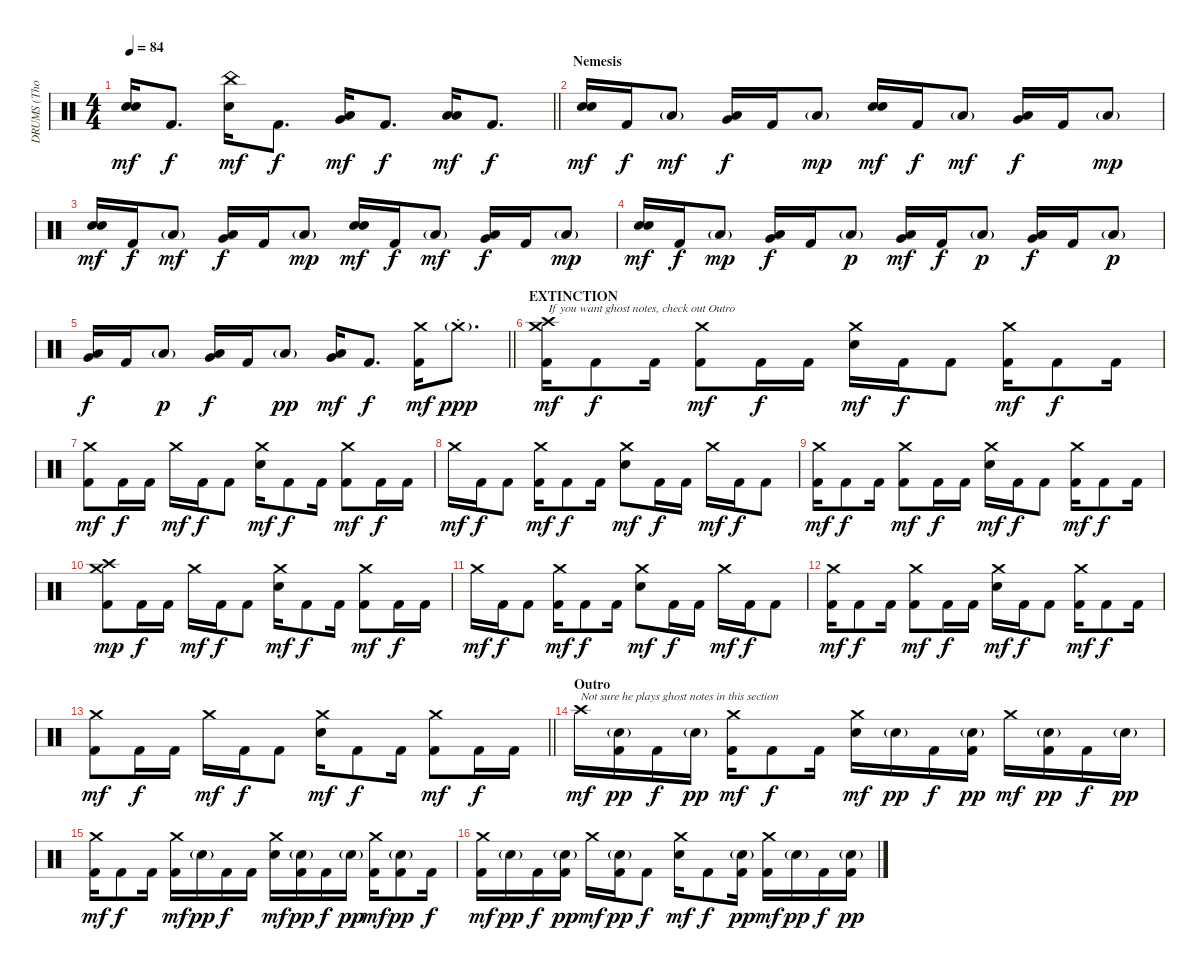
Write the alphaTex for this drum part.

\track ("DRUMS (Thomas Haake)" "DRUMS (Tho") {instrument percussion}
\staff {score}
\articulation defaults
\ts (4 4)
\tempo 84
\clef neutral
\barLineRight lightlight
\ks c
("Electric Snare (hit)" "Electric Snare (hit)").16{bd 240 dy mf} "Kick (hit) 2".8{d dy f} ("China (hit)" "Electric Snare (hit)").16{dy mf} "Kick (hit) 2".8{d dy f} ("Very Low Tom (hit)" "Low Floor Tom (hit)").16{dy mf} "Kick (hit) 2".8{d dy f} ("Low Floor Tom (hit)" "Low Floor Tom (hit)").16{dy mf} "Kick (hit) 2".8{d dy f} |
\section ("" "Nemesis")
("Electric Snare (hit)" "Electric Snare (hit)").16{bd 240 dy mf} "Kick (hit) 2".16{dy f} "Low Floor Tom (hit)"{g}.8{dy mf} ("Very Low Tom (hit)" "Low Floor Tom (hit)").16{dy f} "Kick (hit) 2".16 "Low Floor Tom (hit)"{g}.8{dy mp} ("Electric Snare (hit)" "Electric Snare (hit)").16{bd 30 dy mf} "Kick (hit) 2".16{dy f} "Low Floor Tom (hit)"{g}.8{dy mf} ("Very Low Tom (hit)" "Low Floor Tom (hit)").16{dy f} "Kick (hit) 2".16 "Low Floor Tom (hit)"{g}.8{dy mp} |
("Electric Snare (hit)" "Electric Snare (hit)").16{bd 30 dy mf} "Kick (hit) 2".16{dy f} "Low Floor Tom (hit)"{g}.8{dy mf} ("Very Low Tom (hit)" "Low Floor Tom (hit)").16{dy f} "Kick (hit) 2".16 "Low Floor Tom (hit)"{g}.8{dy mp} ("Electric Snare (hit)" "Electric Snare (hit)").16{bd 30 dy mf} "Kick (hit) 2".16{dy f} "Low Floor Tom (hit)"{g}.8{dy mf} ("Very Low Tom (hit)" "Low Floor Tom (hit)").16{dy f} "Kick (hit) 2".16 "Low Floor Tom (hit)"{g}.8{dy mp} |
("Electric Snare (hit)" "Electric Snare (hit)").16{bd 30 dy mf} "Kick (hit) 2".16{dy f} "Low Floor Tom (hit)"{g}.8{dy mp} ("Very Low Tom (hit)" "Low Floor Tom (hit)").16{dy f} "Kick (hit) 2".16 "Low Floor Tom (hit)"{g}.8{dy p} ("Very Low Tom (hit)" "Low Floor Tom (hit)").16{dy mf} "Kick (hit) 2".16{dy f} "Low Floor Tom (hit)"{g}.8{dy p} ("Very Low Tom (hit)" "Low Floor Tom (hit)").16{dy f} "Kick (hit) 2".16 "Low Floor Tom (hit)"{g}.8{dy p} |
\barLineRight lightlight
("Very Low Tom (hit)" "Low Floor Tom (hit)").16{dy f} "Kick (hit) 2".16 "Low Floor Tom (hit)"{g}.8{dy p} ("Very Low Tom (hit)" "Low Floor Tom (hit)").16{dy f} "Kick (hit) 2".16 "Low Floor Tom (hit)"{g}.8{dy pp} ("Very Low Tom (hit)" "Low Floor Tom (hit)").16{dy mf} "Kick (hit) 2".8{d dy f} ("Crash medium (hit)" "Kick (hit) 2").16{dy mf} "Crash medium (hit)"{g st}.8{d dy ppp} |
\section ("" "EXTINCTION")
("Crash medium (hit)" "Crash high (hit)" "Kick (hit) 2").16{txt "If you want ghost notes, check out Outro" dy mf} "Kick (hit) 2".8{dy f} "Kick (hit) 2".16 ("Crash medium (hit)" "Kick (hit) 2").8{dy mf} "Kick (hit) 2".16{dy f} "Kick (hit) 2".16 ("Crash medium (hit)" "Electric Snare (hit)").16{dy mf} "Kick (hit) 2".16{dy f} "Kick (hit) 2".8 ("Crash medium (hit)" "Kick (hit) 2").16{dy mf} "Kick (hit) 2".8{dy f} "Kick (hit) 2".16 |
("Crash medium (hit)" "Kick (hit) 2").8{dy mf} "Kick (hit) 2".16{dy f} "Kick (hit) 2".16 "Crash medium (hit)".16{dy mf} "Kick (hit) 2".16{dy f} "Kick (hit) 2".8 ("Crash medium (hit)" "Electric Snare (hit)").16{dy mf} "Kick (hit) 2".8{dy f} "Kick (hit) 2".16 ("Crash medium (hit)" "Kick (hit) 2").8{dy mf} "Kick (hit) 2".16{dy f} "Kick (hit) 2".16 |
"Crash medium (hit)".16{dy mf} "Kick (hit) 2".16{dy f} "Kick (hit) 2".8 ("Crash medium (hit)" "Kick (hit) 2").16{dy mf} "Kick (hit) 2".8{dy f} "Kick (hit) 2".16 ("Crash medium (hit)" "Electric Snare (hit)").8{dy mf} "Kick (hit) 2".16{dy f} "Kick (hit) 2".16 "Crash medium (hit)".16{dy mf} "Kick (hit) 2".16{dy f} "Kick (hit) 2".8 |
("Crash medium (hit)" "Kick (hit) 2").16{dy mf} "Kick (hit) 2".8{dy f} "Kick (hit) 2".16 ("Crash medium (hit)" "Kick (hit) 2").8{dy mf} "Kick (hit) 2".16{dy f} "Kick (hit) 2".16 ("Crash medium (hit)" "Electric Snare (hit)").16{dy mf} "Kick (hit) 2".16{dy f} "Kick (hit) 2".8 ("Crash medium (hit)" "Kick (hit) 2").16{dy mf} "Kick (hit) 2".8{dy f} "Kick (hit) 2".16 |
("Crash medium (hit)" "Crash high (hit)" "Kick (hit) 2").8{dy mp} "Kick (hit) 2".16{dy f} "Kick (hit) 2".16 "Crash medium (hit)".16{dy mf} "Kick (hit) 2".16{dy f} "Kick (hit) 2".8 ("Crash medium (hit)" "Electric Snare (hit)").16{dy mf} "Kick (hit) 2".8{dy f} "Kick (hit) 2".16 ("Crash medium (hit)" "Kick (hit) 2").8{dy mf} "Kick (hit) 2".16{dy f} "Kick (hit) 2".16 |
"Crash medium (hit)".16{dy mf} "Kick (hit) 2".16{dy f} "Kick (hit) 2".8 ("Crash medium (hit)" "Kick (hit) 2").16{dy mf} "Kick (hit) 2".8{dy f} "Kick (hit) 2".16 ("Crash medium (hit)" "Electric Snare (hit)").8{dy mf} "Kick (hit) 2".16{dy f} "Kick (hit) 2".16 "Crash medium (hit)".16{dy mf} "Kick (hit) 2".16{dy f} "Kick (hit) 2".8 |
("Crash medium (hit)" "Kick (hit) 2").16{dy mf} "Kick (hit) 2".8{dy f} "Kick (hit) 2".16 ("Crash medium (hit)" "Kick (hit) 2").8{dy mf} "Kick (hit) 2".16{dy f} "Kick (hit) 2".16 ("Crash medium (hit)" "Electric Snare (hit)").16{dy mf} "Kick (hit) 2".16{dy f} "Kick (hit) 2".8 ("Crash medium (hit)" "Kick (hit) 2").16{dy mf} "Kick (hit) 2".8{dy f} "Kick (hit) 2".16 |
\barLineRight lightlight
("Crash medium (hit)" "Kick (hit) 2").8{dy mf} "Kick (hit) 2".16{dy f} "Kick (hit) 2".16 "Crash medium (hit)".16{dy mf} "Kick (hit) 2".16{dy f} "Kick (hit) 2".8 ("Crash medium (hit)" "Electric Snare (hit)").16{dy mf} "Kick (hit) 2".8{dy f} "Kick (hit) 2".16 ("Crash medium (hit)" "Kick (hit) 2").8{dy mf} "Kick (hit) 2".16{dy f} "Kick (hit) 2".16 |
\section ("" "Outro")
"Crash high (hit)".16{txt "Not sure he plays ghost notes in this section" dy mf} ("Electric Snare (hit)"{g} "Kick (hit) 2").16{dy pp} "Kick (hit) 2".16{dy f} "Electric Snare (hit)"{g}.16{dy pp} ("Crash medium (hit)" "Kick (hit) 2").16{dy mf} "Kick (hit) 2".8{dy f} "Kick (hit) 2".16 ("Crash medium (hit)" "Electric Snare (hit)").16{dy mf} "Electric Snare (hit)"{g}.16{dy pp} "Kick (hit) 2".16{dy f} ("Electric Snare (hit)"{g} "Kick (hit) 2").16{dy pp} "Crash medium (hit)".16{dy mf} ("Electric Snare (hit)"{g} "Kick (hit) 2").16{dy pp} "Kick (hit) 2".16{dy f} "Electric Snare (hit)"{g}.16{dy pp} |
("Crash medium (hit)" "Kick (hit) 2").16{dy mf} "Kick (hit) 2".8{dy f} "Kick (hit) 2".16 ("Crash medium (hit)" "Kick (hit) 2").16{dy mf} "Electric Snare (hit)"{g}.16{dy pp} "Kick (hit) 2".16{dy f} "Kick (hit) 2".16 ("Crash medium (hit)" "Electric Snare (hit)").16{dy mf} ("Electric Snare (hit)"{g} "Kick (hit) 2").16{dy pp} "Kick (hit) 2".16{dy f} "Electric Snare (hit)"{g}.16{dy pp} ("Crash medium (hit)" "Kick (hit) 2").16{dy mf} ("Electric Snare (hit)"{g} "Kick (hit) 2").8{dy pp} "Kick (hit) 2".16{dy f} |
("Crash medium (hit)" "Kick (hit) 2").16{dy mf} "Electric Snare (hit)"{g}.16{dy pp} "Kick (hit) 2".16{dy f} ("Electric Snare (hit)"{g} "Kick (hit) 2").16{dy pp} "Crash medium (hit)".16{dy mf} ("Electric Snare (hit)"{g} "Kick (hit) 2").16{dy pp} "Kick (hit) 2".8{dy f} ("Crash medium (hit)" "Electric Snare (hit)").16{dy mf} "Kick (hit) 2".8{dy f} ("Electric Snare (hit)"{g} "Kick (hit) 2").16{dy pp} ("Crash medium (hit)" "Kick (hit) 2").16{dy mf} "Electric Snare (hit)"{g}.16{dy pp} "Kick (hit) 2".16{dy f} ("Electric Snare (hit)"{g} "Kick (hit) 2").16{dy pp}
